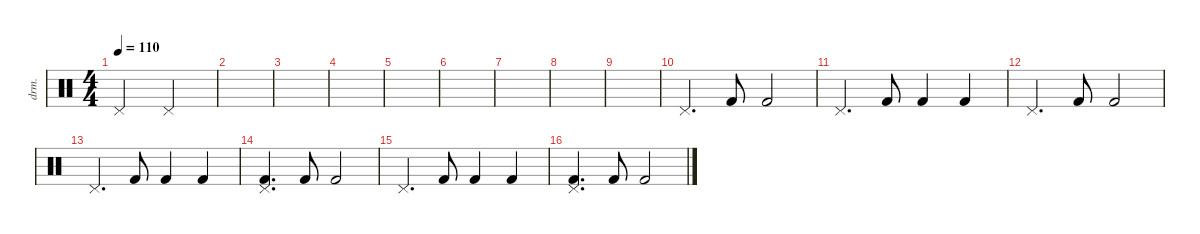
\defaultSystemsLayout 4
\hideDynamics
\bracketExtendMode nobrackets
\track ("Drumkit" "drm.") {instrument percussion}
\staff {score}
\articulation defaults
\ts (4 4)
\tempo 110
\clef neutral
\ks c "Pedal Hi-Hat (hit)".2{dy mf} "Pedal Hi-Hat (hit)".2
|
|
|
|
|
|
|
|
|
"Pedal Hi-Hat (hit)".4{d} "Kick (hit) 2".8 "Kick (hit) 2".2 |
"Pedal Hi-Hat (hit)".4{d} "Kick (hit) 2".8 "Kick (hit) 2".4 "Kick (hit) 2".4 |
"Pedal Hi-Hat (hit)".4{d} "Kick (hit) 2".8 "Kick (hit) 2".2 |
"Pedal Hi-Hat (hit)".4{d} "Kick (hit) 2".8 "Kick (hit) 2".4 "Kick (hit) 2".4 |
("Pedal Hi-Hat (hit)" "Kick (hit) 2").4{d} "Kick (hit) 2".8 "Kick (hit) 2".2 |
"Pedal Hi-Hat (hit)".4{d} "Kick (hit) 2".8 "Kick (hit) 2".4 "Kick (hit) 2".4 |
("Pedal Hi-Hat (hit)" "Kick (hit) 2").4{d} "Kick (hit) 2".8 "Kick (hit) 2".2
